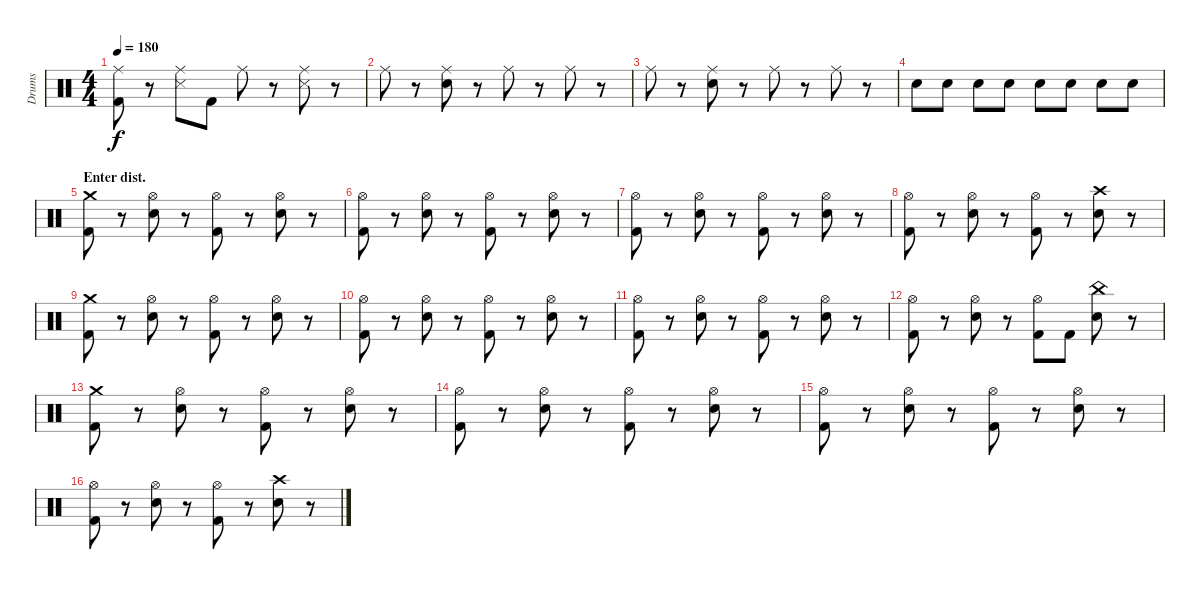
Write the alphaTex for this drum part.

\track ("Drums" "Drums") {instrument percussion}
\staff {score}
\articulation defaults
\ts (4 4)
\tempo 180
\clef neutral
\ks c
("Ride (middle)" "Kick (hit) 2").8{dy f} r.8 ("Ride (middle)" "Snare (side stick) 3").8 "Kick (hit) 2".8 "Ride (middle)".8 r.8 ("Ride (middle)" "Snare (side stick) 3").8 r.8 |
"Ride (middle)".8 r.8 ("Ride (middle)" "Snare (hit) 2").8 r.8 "Ride (middle)".8 r.8 "Ride (middle)".8 r.8 |
"Ride (middle)".8 r.8 ("Ride (middle)" "Snare (hit) 2").8 r.8 "Ride (middle)".8 r.8 "Ride (middle)".8 r.8 |
"Snare (hit) 2".8 "Snare (hit) 2".8 "Snare (hit) 2".8 "Snare (hit) 2".8 "Snare (hit) 2".8 "Snare (hit) 2".8 "Snare (hit) 2".8 "Snare (hit) 2".8 |
\section ("" "Enter dist.")
("Crash medium (hit)" "Kick (hit) 2").8 r.8 ("Hi-Hat (open)" "Snare (hit) 2").8 r.8 ("Hi-Hat (open)" "Kick (hit) 2").8 r.8 ("Hi-Hat (open)" "Snare (hit) 2").8 r.8 |
("Hi-Hat (open)" "Kick (hit) 2").8 r.8 ("Hi-Hat (open)" "Snare (hit) 2").8 r.8 ("Hi-Hat (open)" "Kick (hit) 2").8 r.8 ("Hi-Hat (open)" "Snare (hit) 2").8 r.8 |
("Hi-Hat (open)" "Kick (hit) 2").8 r.8 ("Hi-Hat (open)" "Snare (hit) 2").8 r.8 ("Hi-Hat (open)" "Kick (hit) 2").8 r.8 ("Hi-Hat (open)" "Snare (hit) 2").8 r.8 |
("Hi-Hat (open)" "Kick (hit) 2").8 r.8 ("Hi-Hat (open)" "Snare (hit) 2").8 r.8 ("Hi-Hat (open)" "Kick (hit) 2").8 r.8 ("Crash high (hit)" "Snare (hit) 2").8 r.8 |
("Crash medium (hit)" "Kick (hit) 2").8 r.8 ("Hi-Hat (open)" "Snare (hit) 2").8 r.8 ("Hi-Hat (open)" "Kick (hit) 2").8 r.8 ("Hi-Hat (open)" "Snare (hit) 2").8 r.8 |
("Hi-Hat (open)" "Kick (hit) 2").8 r.8 ("Hi-Hat (open)" "Snare (hit) 2").8 r.8 ("Hi-Hat (open)" "Kick (hit) 2").8 r.8 ("Hi-Hat (open)" "Snare (hit) 2").8 r.8 |
("Hi-Hat (open)" "Kick (hit) 2").8 r.8 ("Hi-Hat (open)" "Snare (hit) 2").8 r.8 ("Hi-Hat (open)" "Kick (hit) 2").8 r.8 ("Hi-Hat (open)" "Snare (hit) 2").8 r.8 |
("Hi-Hat (open)" "Kick (hit) 2").8 r.8 ("Hi-Hat (open)" "Snare (hit) 2").8 r.8 ("Hi-Hat (open)" "Kick (hit) 2").8 "Kick (hit) 2".8 ("China (hit)" "Snare (hit) 2").8 r.8 |
("Crash medium (hit)" "Kick (hit) 2").8 r.8 ("Hi-Hat (open)" "Snare (hit) 2").8 r.8 ("Hi-Hat (open)" "Kick (hit) 2").8 r.8 ("Hi-Hat (open)" "Snare (hit) 2").8 r.8 |
("Hi-Hat (open)" "Kick (hit) 2").8 r.8 ("Hi-Hat (open)" "Snare (hit) 2").8 r.8 ("Hi-Hat (open)" "Kick (hit) 2").8 r.8 ("Hi-Hat (open)" "Snare (hit) 2").8 r.8 |
("Hi-Hat (open)" "Kick (hit) 2").8 r.8 ("Hi-Hat (open)" "Snare (hit) 2").8 r.8 ("Hi-Hat (open)" "Kick (hit) 2").8 r.8 ("Hi-Hat (open)" "Snare (hit) 2").8 r.8 |
("Hi-Hat (open)" "Kick (hit) 2").8 r.8 ("Hi-Hat (open)" "Snare (hit) 2").8 r.8 ("Hi-Hat (open)" "Kick (hit) 2").8 r.8 ("Crash high (hit)" "Snare (hit) 2").8 r.8
